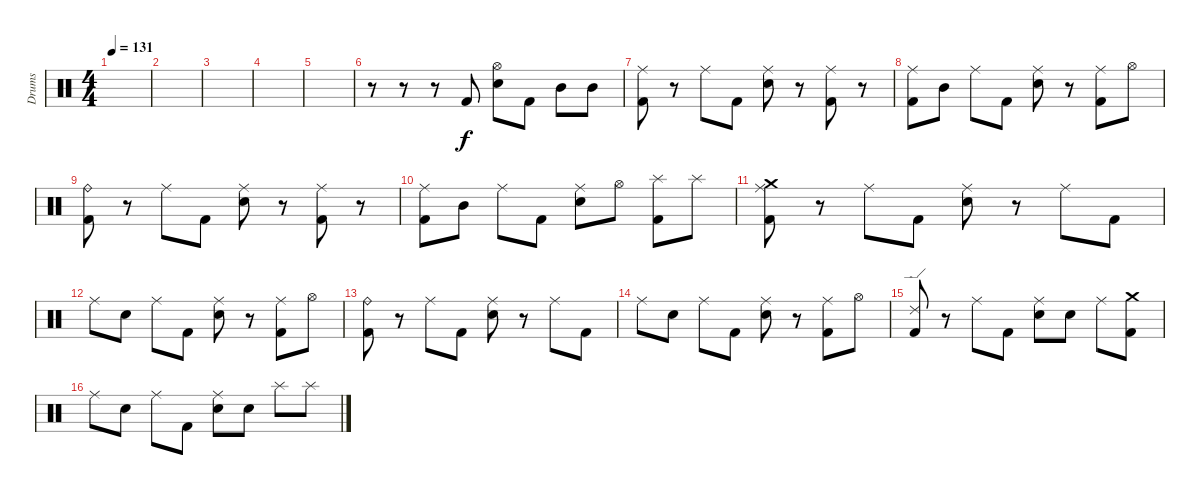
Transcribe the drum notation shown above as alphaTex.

\track ("Drums" "Drums") {instrument percussion}
\staff {score}
\articulation defaults
\ts (4 4)
\tempo 131
\clef neutral
\ks c
|
|
|
|
|
r.8 r.8 r.8 "Kick (hit) 2".8 ("Hi-Hat (open)" "Electric Snare (hit)").8 "Kick (hit) 2".8 "Mid Tom (hit)".8 "Mid Tom (hit)".8 |
("Ride (middle)" "Kick (hit) 2").8 r.8 "Ride (middle)".8 "Kick (hit) 2".8 ("Ride (middle)" "Electric Snare (hit)").8 r.8 ("Ride (middle)" "Kick (hit) 2").8 r.8 |
("Ride (middle)" "Kick (hit) 2").8 "Mid Tom (hit)".8 "Ride (middle)".8 "Kick (hit) 2".8 ("Ride (middle)" "Electric Snare (hit)").8 r.8 ("Ride (middle)" "Kick (hit) 2").8 "Hi-Hat (open)".8 |
("Ride (bell)" "Kick (hit) 2").8 r.8 "Ride (middle)".8 "Kick (hit) 2".8 ("Ride (middle)" "Electric Snare (hit)").8 r.8 ("Ride (middle)" "Kick (hit) 2").8 r.8 |
("Ride (middle)" "Kick (hit) 2").8 "Mid Tom (hit)".8 "Ride (middle)".8 "Kick (hit) 2".8 ("Ride (middle)" "Electric Snare (hit)").8 "Hi-Hat (open)".8 ("Splash (hit)" "Kick (hit) 2").8 "Splash (hit)".8 |
("Crash medium (hit)" "Ride (middle)" "Kick (hit) 2").8 r.8 "Ride (middle)".8 "Kick (hit) 2".8 ("Ride (middle)" "Electric Snare (hit)").8 r.8 "Ride (middle)".8 "Kick (hit) 2".8 |
"Ride (middle)".8 "Electric Snare (hit)".8 "Ride (middle)".8 "Kick (hit) 2".8 ("Ride (middle)" "Electric Snare (hit)").8 r.8 ("Ride (middle)" "Kick (hit) 2").8 "Hi-Hat (open)".8 |
("Ride (bell)" "Kick (hit) 2").8 r.8 "Ride (middle)".8 "Kick (hit) 2".8 ("Ride (middle)" "Electric Snare (hit)").8 r.8 "Ride (middle)".8 "Kick (hit) 2".8 |
"Ride (middle)".8 "Electric Snare (hit)".8 "Ride (middle)".8 "Kick (hit) 2".8 ("Ride (middle)" "Electric Snare (hit)").8 r.8 ("Ride (middle)" "Kick (hit) 2").8 "Hi-Hat (open)".8 |
("Ride (edge) 2" "Kick (hit) 2").8 r.8 "Ride (middle)".8 "Kick (hit) 2".8 ("Ride (middle)" "Electric Snare (hit)").8 "Electric Snare (hit)".8 "Ride (middle)".8 ("Crash medium (hit)" "Kick (hit) 2").8 |
"Ride (middle)".8 "Electric Snare (hit)".8 "Ride (middle)".8 "Kick (hit) 2".8 ("Ride (middle)" "Electric Snare (hit)").8 "Electric Snare (hit)".8 "Splash (hit)".8 "Splash (hit)".8
